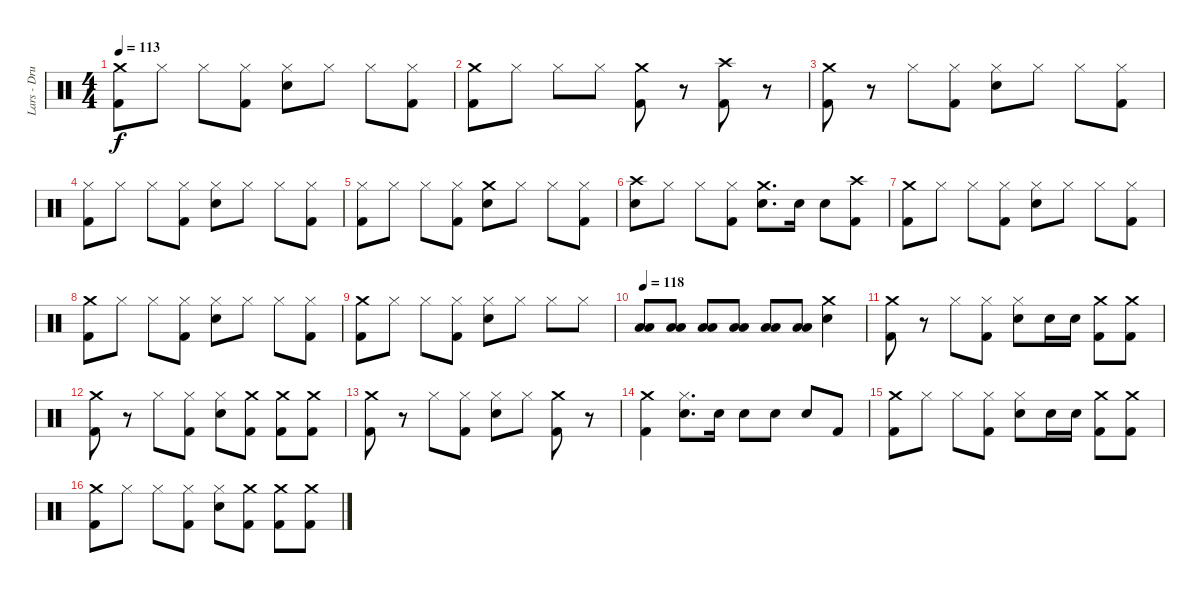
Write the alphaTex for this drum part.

\track ("Lars - Drums" "Lars - Dru") {instrument percussion}
\staff {score}
\articulation defaults
\ts (4 4)
\tempo 113
\clef neutral
\ks c
("Crash medium (hit)" "Kick (hit) 2").8{dy f} "Hi-Hat (closed)".8 "Hi-Hat (closed)".8 ("Hi-Hat (closed)" "Kick (hit) 2").8 ("Hi-Hat (closed)" "Snare (hit) 2").8 "Hi-Hat (closed)".8 "Hi-Hat (closed)".8 ("Hi-Hat (closed)" "Kick (hit) 2").8 |
("Crash medium (hit)" "Kick (hit) 2").8 "Hi-Hat (closed)".8 "Hi-Hat (closed)".8 "Hi-Hat (closed)".8 ("Crash medium (hit)" "Kick (hit) 2").8 r.8 ("Crash high (hit)" "Kick (hit) 2").8 r.8 |
("Crash medium (hit)" "Kick (hit) 2").8 r.8 "Hi-Hat (closed)".8 ("Hi-Hat (closed)" "Kick (hit) 2").8 ("Hi-Hat (closed)" "Snare (hit) 2").8 "Hi-Hat (closed)".8 "Hi-Hat (closed)".8 ("Hi-Hat (closed)" "Kick (hit) 2").8 |
("Hi-Hat (closed)" "Kick (hit) 2").8 "Hi-Hat (closed)".8 "Hi-Hat (closed)".8 ("Hi-Hat (closed)" "Kick (hit) 2").8 ("Hi-Hat (closed)" "Snare (hit) 2").8 "Hi-Hat (closed)".8 "Hi-Hat (closed)".8 ("Hi-Hat (closed)" "Kick (hit) 2").8 |
("Hi-Hat (closed)" "Kick (hit) 2").8 "Hi-Hat (closed)".8 "Hi-Hat (closed)".8 ("Hi-Hat (closed)" "Kick (hit) 2").8 ("Crash medium (hit)" "Snare (hit) 2").8 "Hi-Hat (closed)".8 "Hi-Hat (closed)".8 ("Hi-Hat (closed)" "Kick (hit) 2").8 |
("Crash high (hit)" "Snare (hit) 2").8 "Hi-Hat (closed)".8 "Hi-Hat (closed)".8 ("Hi-Hat (closed)" "Kick (hit) 2").8 ("Crash medium (hit)" "Snare (hit) 2").8{d} "Snare (hit) 2".16 "Snare (hit) 2".8 ("Crash high (hit)" "Kick (hit) 2").8 |
("Crash medium (hit)" "Kick (hit) 2").8 "Hi-Hat (closed)".8 "Hi-Hat (closed)".8 ("Hi-Hat (closed)" "Kick (hit) 2").8 ("Hi-Hat (closed)" "Snare (hit) 2").8 "Hi-Hat (closed)".8 "Hi-Hat (closed)".8 ("Hi-Hat (closed)" "Kick (hit) 2").8 |
("Crash medium (hit)" "Kick (hit) 2").8 "Hi-Hat (closed)".8 "Hi-Hat (closed)".8 ("Hi-Hat (closed)" "Kick (hit) 2").8 ("Hi-Hat (closed)" "Snare (hit) 2").8 "Hi-Hat (closed)".8 "Hi-Hat (closed)".8 ("Hi-Hat (closed)" "Kick (hit) 2").8 |
("Crash medium (hit)" "Kick (hit) 2").8 "Hi-Hat (closed)".8 "Hi-Hat (closed)".8 ("Hi-Hat (closed)" "Kick (hit) 2").8 ("Hi-Hat (closed)" "Snare (hit) 2").8 "Hi-Hat (closed)".8 "Hi-Hat (closed)".8 "Hi-Hat (closed)".8 |
\tempo 118
("Low Tom (hit)" "Low Floor Tom (hit)").8{volume 14} ("Low Tom (hit)" "Low Floor Tom (hit)").8 ("Low Tom (hit)" "Low Floor Tom (hit)").8 ("Low Tom (hit)" "Low Floor Tom (hit)").8 ("Low Tom (hit)" "Low Floor Tom (hit)").8 ("Low Tom (hit)" "Low Floor Tom (hit)").8 ("Crash medium (hit)" "Snare (hit) 2").4 |
("Crash medium (hit)" "Kick (hit) 2").8 r.8 "Hi-Hat (closed)".8 ("Hi-Hat (closed)" "Kick (hit) 2").8 ("Hi-Hat (closed)" "Snare (hit) 2").8 "Snare (hit) 2".16 "Snare (hit) 2".16 ("Crash medium (hit)" "Kick (hit) 2").8 ("Crash medium (hit)" "Kick (hit) 2").8 |
("Crash medium (hit)" "Kick (hit) 2").8 r.8 "Hi-Hat (closed)".8 ("Hi-Hat (closed)" "Kick (hit) 2").8 ("Hi-Hat (closed)" "Snare (hit) 2").8 ("Crash medium (hit)" "Kick (hit) 2").8 ("Crash medium (hit)" "Kick (hit) 2").8 ("Crash medium (hit)" "Kick (hit) 2").8 |
("Crash medium (hit)" "Kick (hit) 2").8 r.8 "Hi-Hat (closed)".8 ("Hi-Hat (closed)" "Kick (hit) 2").8 ("Hi-Hat (closed)" "Snare (hit) 2").8 "Hi-Hat (closed)".8 ("Crash medium (hit)" "Kick (hit) 2").8 r.8 |
("Crash medium (hit)" "Kick (hit) 2").4 ("Hi-Hat (closed)" "Snare (hit) 2").8{d} "Snare (hit) 2".16 "Snare (hit) 2".8 "Snare (hit) 2".8 "Snare (hit) 2".8 "Kick (hit) 2".8 |
("Crash medium (hit)" "Kick (hit) 2").8 "Hi-Hat (closed)".8 "Hi-Hat (closed)".8 ("Hi-Hat (closed)" "Kick (hit) 2").8 ("Hi-Hat (closed)" "Snare (hit) 2").8 "Snare (hit) 2".16 "Snare (hit) 2".16 ("Crash medium (hit)" "Kick (hit) 2").8 ("Crash medium (hit)" "Kick (hit) 2").8 |
("Crash medium (hit)" "Kick (hit) 2").8 "Hi-Hat (closed)".8 "Hi-Hat (closed)".8 ("Hi-Hat (closed)" "Kick (hit) 2").8 ("Hi-Hat (closed)" "Snare (hit) 2").8 ("Crash medium (hit)" "Kick (hit) 2").8 ("Crash medium (hit)" "Kick (hit) 2").8 ("Crash medium (hit)" "Kick (hit) 2").8
